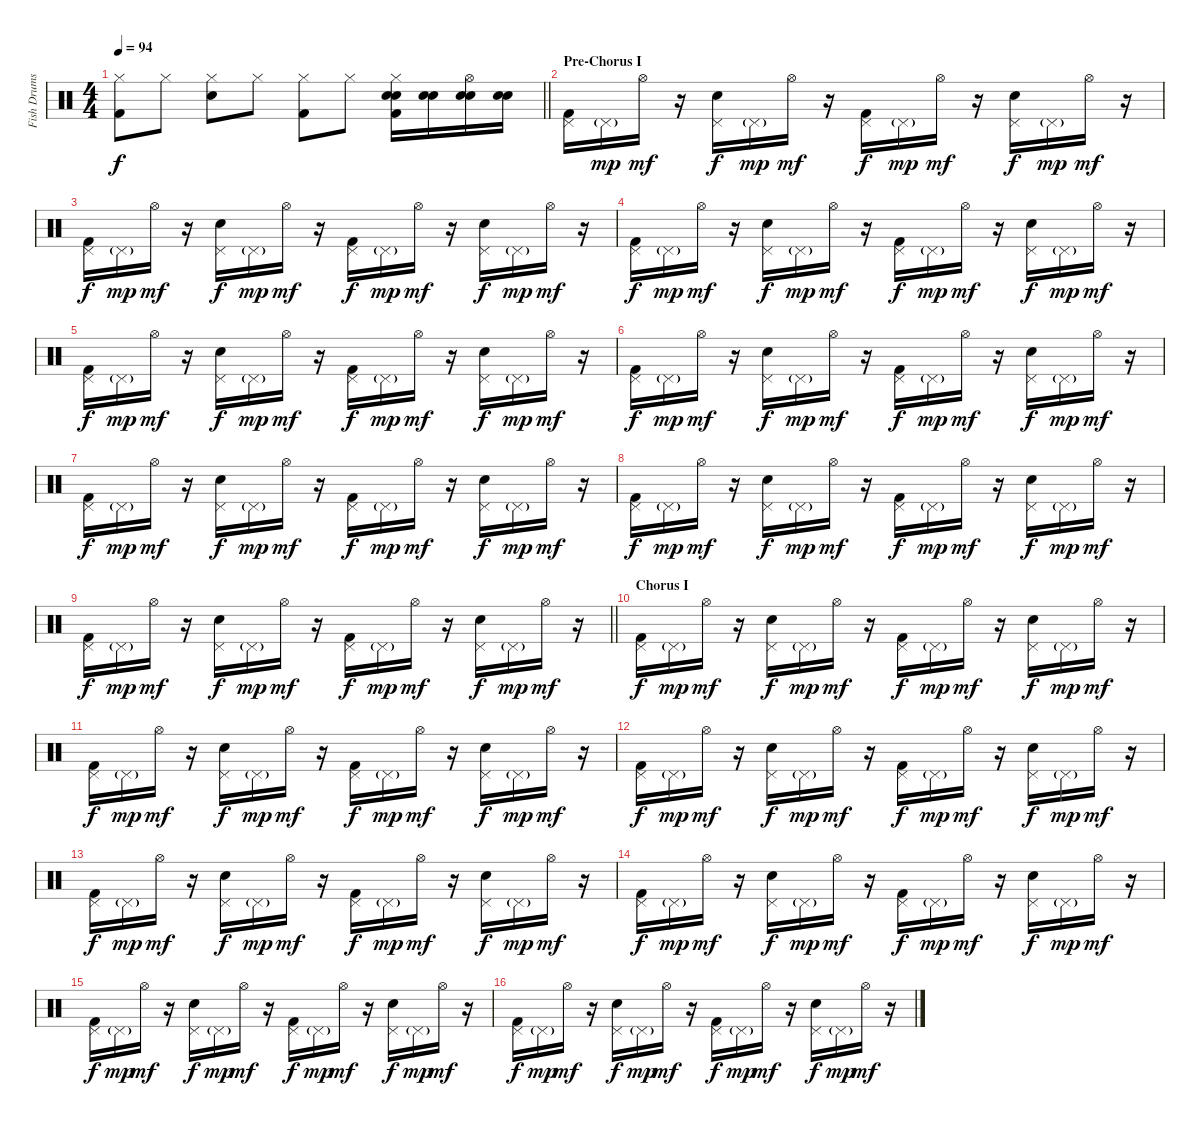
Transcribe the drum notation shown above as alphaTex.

\track ("Fish Drums" "Fish Drums") {instrument percussion}
\staff {score}
\articulation defaults
\ts (4 4)
\tempo 94
\clef neutral
\barLineRight lightlight
\ks c
("Hi-Hat (closed)" "Kick (hit) 2").8{dy f} "Hi-Hat (closed)".8 ("Hi-Hat (closed)" "Snare (hit) 2").8 "Hi-Hat (closed)".8 ("Hi-Hat (closed)" "Kick (hit) 2").8 "Hi-Hat (closed)".8 ("Hi-Hat (closed)" "Snare (hit) 2" "Snare (hit) 2" "Kick (hit) 2").16 ("Snare (hit) 2" "Snare (hit) 2").16 ("Hi-Hat (open)" "Snare (hit) 2" "Snare (hit) 2").16 ("Snare (hit) 2" "Snare (hit) 2").16 |
\section ("" "Pre-Chorus I")
("Pedal Hi-Hat (hit)" "Kick (hit) 2").16 "Pedal Hi-Hat (hit)"{g}.16{dy mp} "Hi-Hat (open)".16{dy mf} r.16 ("Pedal Hi-Hat (hit)" "Snare (hit) 2").16{dy f} "Pedal Hi-Hat (hit)"{g}.16{dy mp} "Hi-Hat (open)".16{dy mf} r.16 ("Pedal Hi-Hat (hit)" "Kick (hit) 2").16{dy f} "Pedal Hi-Hat (hit)"{g}.16{dy mp} "Hi-Hat (open)".16{dy mf} r.16 ("Pedal Hi-Hat (hit)" "Snare (hit) 2").16{dy f} "Pedal Hi-Hat (hit)"{g}.16{dy mp} "Hi-Hat (open)".16{dy mf} r.16 |
("Pedal Hi-Hat (hit)" "Kick (hit) 2").16{dy f} "Pedal Hi-Hat (hit)"{g}.16{dy mp} "Hi-Hat (open)".16{dy mf} r.16 ("Pedal Hi-Hat (hit)" "Snare (hit) 2").16{dy f} "Pedal Hi-Hat (hit)"{g}.16{dy mp} "Hi-Hat (open)".16{dy mf} r.16 ("Pedal Hi-Hat (hit)" "Kick (hit) 2").16{dy f} "Pedal Hi-Hat (hit)"{g}.16{dy mp} "Hi-Hat (open)".16{dy mf} r.16 ("Pedal Hi-Hat (hit)" "Snare (hit) 2").16{dy f} "Pedal Hi-Hat (hit)"{g}.16{dy mp} "Hi-Hat (open)".16{dy mf} r.16 |
("Pedal Hi-Hat (hit)" "Kick (hit) 2").16{dy f} "Pedal Hi-Hat (hit)"{g}.16{dy mp} "Hi-Hat (open)".16{dy mf} r.16 ("Pedal Hi-Hat (hit)" "Snare (hit) 2").16{dy f} "Pedal Hi-Hat (hit)"{g}.16{dy mp} "Hi-Hat (open)".16{dy mf} r.16 ("Pedal Hi-Hat (hit)" "Kick (hit) 2").16{dy f} "Pedal Hi-Hat (hit)"{g}.16{dy mp} "Hi-Hat (open)".16{dy mf} r.16 ("Pedal Hi-Hat (hit)" "Snare (hit) 2").16{dy f} "Pedal Hi-Hat (hit)"{g}.16{dy mp} "Hi-Hat (open)".16{dy mf} r.16 |
("Pedal Hi-Hat (hit)" "Kick (hit) 2").16{dy f} "Pedal Hi-Hat (hit)"{g}.16{dy mp} "Hi-Hat (open)".16{dy mf} r.16 ("Pedal Hi-Hat (hit)" "Snare (hit) 2").16{dy f} "Pedal Hi-Hat (hit)"{g}.16{dy mp} "Hi-Hat (open)".16{dy mf} r.16 ("Pedal Hi-Hat (hit)" "Kick (hit) 2").16{dy f} "Pedal Hi-Hat (hit)"{g}.16{dy mp} "Hi-Hat (open)".16{dy mf} r.16 ("Pedal Hi-Hat (hit)" "Snare (hit) 2").16{dy f} "Pedal Hi-Hat (hit)"{g}.16{dy mp} "Hi-Hat (open)".16{dy mf} r.16 |
("Pedal Hi-Hat (hit)" "Kick (hit) 2").16{dy f} "Pedal Hi-Hat (hit)"{g}.16{dy mp} "Hi-Hat (open)".16{dy mf} r.16 ("Pedal Hi-Hat (hit)" "Snare (hit) 2").16{dy f} "Pedal Hi-Hat (hit)"{g}.16{dy mp} "Hi-Hat (open)".16{dy mf} r.16 ("Pedal Hi-Hat (hit)" "Kick (hit) 2").16{dy f} "Pedal Hi-Hat (hit)"{g}.16{dy mp} "Hi-Hat (open)".16{dy mf} r.16 ("Pedal Hi-Hat (hit)" "Snare (hit) 2").16{dy f} "Pedal Hi-Hat (hit)"{g}.16{dy mp} "Hi-Hat (open)".16{dy mf} r.16 |
("Pedal Hi-Hat (hit)" "Kick (hit) 2").16{dy f} "Pedal Hi-Hat (hit)"{g}.16{dy mp} "Hi-Hat (open)".16{dy mf} r.16 ("Pedal Hi-Hat (hit)" "Snare (hit) 2").16{dy f} "Pedal Hi-Hat (hit)"{g}.16{dy mp} "Hi-Hat (open)".16{dy mf} r.16 ("Pedal Hi-Hat (hit)" "Kick (hit) 2").16{dy f} "Pedal Hi-Hat (hit)"{g}.16{dy mp} "Hi-Hat (open)".16{dy mf} r.16 ("Pedal Hi-Hat (hit)" "Snare (hit) 2").16{dy f} "Pedal Hi-Hat (hit)"{g}.16{dy mp} "Hi-Hat (open)".16{dy mf} r.16 |
("Pedal Hi-Hat (hit)" "Kick (hit) 2").16{dy f} "Pedal Hi-Hat (hit)"{g}.16{dy mp} "Hi-Hat (open)".16{dy mf} r.16 ("Pedal Hi-Hat (hit)" "Snare (hit) 2").16{dy f} "Pedal Hi-Hat (hit)"{g}.16{dy mp} "Hi-Hat (open)".16{dy mf} r.16 ("Pedal Hi-Hat (hit)" "Kick (hit) 2").16{dy f} "Pedal Hi-Hat (hit)"{g}.16{dy mp} "Hi-Hat (open)".16{dy mf} r.16 ("Pedal Hi-Hat (hit)" "Snare (hit) 2").16{dy f} "Pedal Hi-Hat (hit)"{g}.16{dy mp} "Hi-Hat (open)".16{dy mf} r.16 |
\barLineRight lightlight
("Pedal Hi-Hat (hit)" "Kick (hit) 2").16{dy f} "Pedal Hi-Hat (hit)"{g}.16{dy mp} "Hi-Hat (open)".16{dy mf} r.16 ("Pedal Hi-Hat (hit)" "Snare (hit) 2").16{dy f} "Pedal Hi-Hat (hit)"{g}.16{dy mp} "Hi-Hat (open)".16{dy mf} r.16 ("Pedal Hi-Hat (hit)" "Kick (hit) 2").16{dy f} "Pedal Hi-Hat (hit)"{g}.16{dy mp} "Hi-Hat (open)".16{dy mf} r.16 ("Pedal Hi-Hat (hit)" "Snare (hit) 2").16{dy f} "Pedal Hi-Hat (hit)"{g}.16{dy mp} "Hi-Hat (open)".16{dy mf} r.16 |
\section ("" "Chorus I")
("Pedal Hi-Hat (hit)" "Kick (hit) 2").16{dy f} "Pedal Hi-Hat (hit)"{g}.16{dy mp} "Hi-Hat (open)".16{dy mf} r.16 ("Pedal Hi-Hat (hit)" "Snare (hit) 2").16{dy f} "Pedal Hi-Hat (hit)"{g}.16{dy mp} "Hi-Hat (open)".16{dy mf} r.16 ("Pedal Hi-Hat (hit)" "Kick (hit) 2").16{dy f} "Pedal Hi-Hat (hit)"{g}.16{dy mp} "Hi-Hat (open)".16{dy mf} r.16 ("Pedal Hi-Hat (hit)" "Snare (hit) 2").16{dy f} "Pedal Hi-Hat (hit)"{g}.16{dy mp} "Hi-Hat (open)".16{dy mf} r.16 |
("Pedal Hi-Hat (hit)" "Kick (hit) 2").16{dy f} "Pedal Hi-Hat (hit)"{g}.16{dy mp} "Hi-Hat (open)".16{dy mf} r.16 ("Pedal Hi-Hat (hit)" "Snare (hit) 2").16{dy f} "Pedal Hi-Hat (hit)"{g}.16{dy mp} "Hi-Hat (open)".16{dy mf} r.16 ("Pedal Hi-Hat (hit)" "Kick (hit) 2").16{dy f} "Pedal Hi-Hat (hit)"{g}.16{dy mp} "Hi-Hat (open)".16{dy mf} r.16 ("Pedal Hi-Hat (hit)" "Snare (hit) 2").16{dy f} "Pedal Hi-Hat (hit)"{g}.16{dy mp} "Hi-Hat (open)".16{dy mf} r.16 |
("Pedal Hi-Hat (hit)" "Kick (hit) 2").16{dy f} "Pedal Hi-Hat (hit)"{g}.16{dy mp} "Hi-Hat (open)".16{dy mf} r.16 ("Pedal Hi-Hat (hit)" "Snare (hit) 2").16{dy f} "Pedal Hi-Hat (hit)"{g}.16{dy mp} "Hi-Hat (open)".16{dy mf} r.16 ("Pedal Hi-Hat (hit)" "Kick (hit) 2").16{dy f} "Pedal Hi-Hat (hit)"{g}.16{dy mp} "Hi-Hat (open)".16{dy mf} r.16 ("Pedal Hi-Hat (hit)" "Snare (hit) 2").16{dy f} "Pedal Hi-Hat (hit)"{g}.16{dy mp} "Hi-Hat (open)".16{dy mf} r.16 |
("Pedal Hi-Hat (hit)" "Kick (hit) 2").16{dy f} "Pedal Hi-Hat (hit)"{g}.16{dy mp} "Hi-Hat (open)".16{dy mf} r.16 ("Pedal Hi-Hat (hit)" "Snare (hit) 2").16{dy f} "Pedal Hi-Hat (hit)"{g}.16{dy mp} "Hi-Hat (open)".16{dy mf} r.16 ("Pedal Hi-Hat (hit)" "Kick (hit) 2").16{dy f} "Pedal Hi-Hat (hit)"{g}.16{dy mp} "Hi-Hat (open)".16{dy mf} r.16 ("Pedal Hi-Hat (hit)" "Snare (hit) 2").16{dy f} "Pedal Hi-Hat (hit)"{g}.16{dy mp} "Hi-Hat (open)".16{dy mf} r.16 |
("Pedal Hi-Hat (hit)" "Kick (hit) 2").16{dy f} "Pedal Hi-Hat (hit)"{g}.16{dy mp} "Hi-Hat (open)".16{dy mf} r.16 ("Pedal Hi-Hat (hit)" "Snare (hit) 2").16{dy f} "Pedal Hi-Hat (hit)"{g}.16{dy mp} "Hi-Hat (open)".16{dy mf} r.16 ("Pedal Hi-Hat (hit)" "Kick (hit) 2").16{dy f} "Pedal Hi-Hat (hit)"{g}.16{dy mp} "Hi-Hat (open)".16{dy mf} r.16 ("Pedal Hi-Hat (hit)" "Snare (hit) 2").16{dy f} "Pedal Hi-Hat (hit)"{g}.16{dy mp} "Hi-Hat (open)".16{dy mf} r.16 |
("Pedal Hi-Hat (hit)" "Kick (hit) 2").16{dy f} "Pedal Hi-Hat (hit)"{g}.16{dy mp} "Hi-Hat (open)".16{dy mf} r.16 ("Pedal Hi-Hat (hit)" "Snare (hit) 2").16{dy f} "Pedal Hi-Hat (hit)"{g}.16{dy mp} "Hi-Hat (open)".16{dy mf} r.16 ("Pedal Hi-Hat (hit)" "Kick (hit) 2").16{dy f} "Pedal Hi-Hat (hit)"{g}.16{dy mp} "Hi-Hat (open)".16{dy mf} r.16 ("Pedal Hi-Hat (hit)" "Snare (hit) 2").16{dy f} "Pedal Hi-Hat (hit)"{g}.16{dy mp} "Hi-Hat (open)".16{dy mf} r.16 |
("Pedal Hi-Hat (hit)" "Kick (hit) 2").16{dy f} "Pedal Hi-Hat (hit)"{g}.16{dy mp} "Hi-Hat (open)".16{dy mf} r.16 ("Pedal Hi-Hat (hit)" "Snare (hit) 2").16{dy f} "Pedal Hi-Hat (hit)"{g}.16{dy mp} "Hi-Hat (open)".16{dy mf} r.16 ("Pedal Hi-Hat (hit)" "Kick (hit) 2").16{dy f} "Pedal Hi-Hat (hit)"{g}.16{dy mp} "Hi-Hat (open)".16{dy mf} r.16 ("Pedal Hi-Hat (hit)" "Snare (hit) 2").16{dy f} "Pedal Hi-Hat (hit)"{g}.16{dy mp} "Hi-Hat (open)".16{dy mf} r.16
